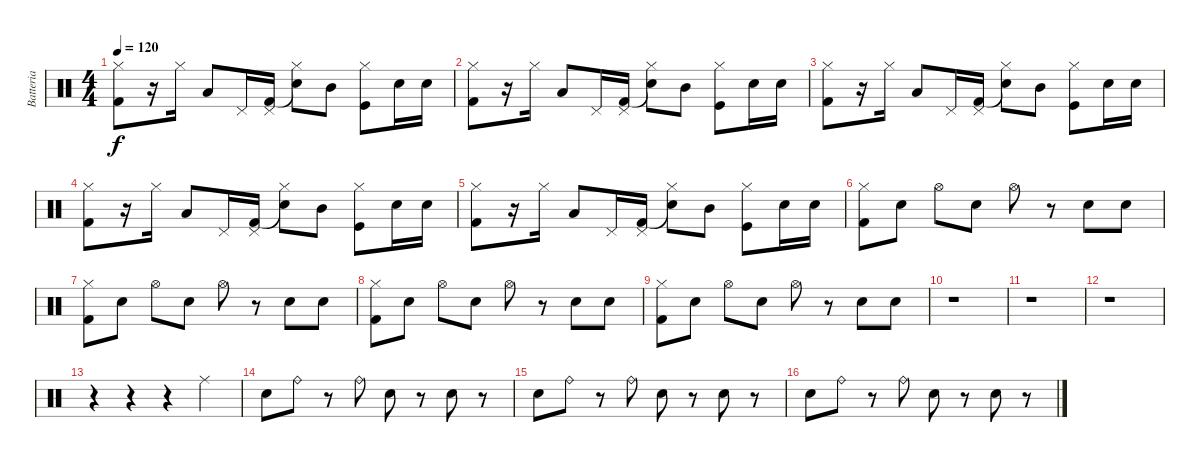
\track ("Batteria" "Batteria") {instrument percussion}
\staff {score}
\articulation defaults
\ts (4 4)
\tempo 120
\clef neutral
\ks c
("Hi-Hat (closed)" "Kick (hit) 2").8{dy f} r.16 "Hi-Hat (closed)".16 "Low Tom (hit)".8 "Pedal Hi-Hat (hit)".16 ("Pedal Hi-Hat (hit)" "Kick (hit) 2").16 ("Hi-Hat (closed)" "Snare (hit)"{t}).8 "Mid Tom (hit)".8 ("Hi-Hat (closed)" "Kick (hit)").8 "Snare (hit) 2".16 "Snare (hit) 2".16 |
("Hi-Hat (closed)" "Kick (hit) 2").8 r.16 "Hi-Hat (closed)".16 "Low Tom (hit)".8 "Pedal Hi-Hat (hit)".16 ("Pedal Hi-Hat (hit)" "Kick (hit) 2").16 ("Hi-Hat (closed)" "Snare (hit)"{t}).8 "Mid Tom (hit)".8 ("Hi-Hat (closed)" "Kick (hit)").8 "Snare (hit) 2".16 "Snare (hit) 2".16 |
("Hi-Hat (closed)" "Kick (hit) 2").8 r.16 "Hi-Hat (closed)".16 "Low Tom (hit)".8 "Pedal Hi-Hat (hit)".16 ("Pedal Hi-Hat (hit)" "Kick (hit) 2").16 ("Hi-Hat (closed)" "Snare (hit)"{t}).8 "Mid Tom (hit)".8 ("Hi-Hat (closed)" "Kick (hit)").8 "Snare (hit) 2".16 "Snare (hit) 2".16 |
("Hi-Hat (closed)" "Kick (hit) 2").8 r.16 "Hi-Hat (closed)".16 "Low Tom (hit)".8 "Pedal Hi-Hat (hit)".16 ("Pedal Hi-Hat (hit)" "Kick (hit) 2").16 ("Hi-Hat (closed)" "Snare (hit)"{t}).8 "Mid Tom (hit)".8 ("Hi-Hat (closed)" "Kick (hit)").8 "Snare (hit) 2".16 "Snare (hit) 2".16 |
("Hi-Hat (closed)" "Kick (hit) 2").8 r.16 "Hi-Hat (closed)".16 "Low Tom (hit)".8 "Pedal Hi-Hat (hit)".16 ("Pedal Hi-Hat (hit)" "Kick (hit) 2").16 ("Hi-Hat (closed)" "Snare (hit)"{t}).8 "Mid Tom (hit)".8 ("Hi-Hat (closed)" "Kick (hit)").8 "Snare (hit) 2".16 "Snare (hit) 2".16 |
("Hi-Hat (closed)" "Kick (hit) 2").8 "Snare (hit) 2".8 "Hi-Hat (open)".8 "Snare (hit) 2".8 "Hi-Hat (open)".8 r.8 "Snare (hit) 2".8 "Snare (hit) 2".8 |
("Hi-Hat (closed)" "Kick (hit) 2").8 "Snare (hit) 2".8 "Hi-Hat (open)".8 "Snare (hit) 2".8 "Hi-Hat (open)".8 r.8 "Snare (hit) 2".8 "Snare (hit) 2".8 |
("Hi-Hat (closed)" "Kick (hit) 2").8 "Snare (hit) 2".8 "Hi-Hat (open)".8 "Snare (hit) 2".8 "Hi-Hat (open)".8 r.8 "Snare (hit) 2".8 "Snare (hit) 2".8 |
("Hi-Hat (closed)" "Kick (hit) 2").8 "Snare (hit) 2".8 "Hi-Hat (open)".8 "Snare (hit) 2".8 "Hi-Hat (open)".8 r.8 "Snare (hit) 2".8 "Snare (hit) 2".8 |
r.1 |
r.1 |
r.1 |
r.4{volume 8} r.4 r.4 "Ride (middle)".4 |
"Metronome (bell)".8 "Ride (bell)".8 r.8 "Ride (bell)".8 "Metronome (bell)".8 r.8 "Metronome (bell)".8 r.8 |
"Metronome (bell)".8 "Ride (bell)".8 r.8 "Ride (bell)".8 "Metronome (bell)".8 r.8 "Metronome (bell)".8 r.8 |
"Metronome (bell)".8 "Ride (bell)".8 r.8 "Ride (bell)".8 "Metronome (bell)".8 r.8 "Metronome (bell)".8 r.8
